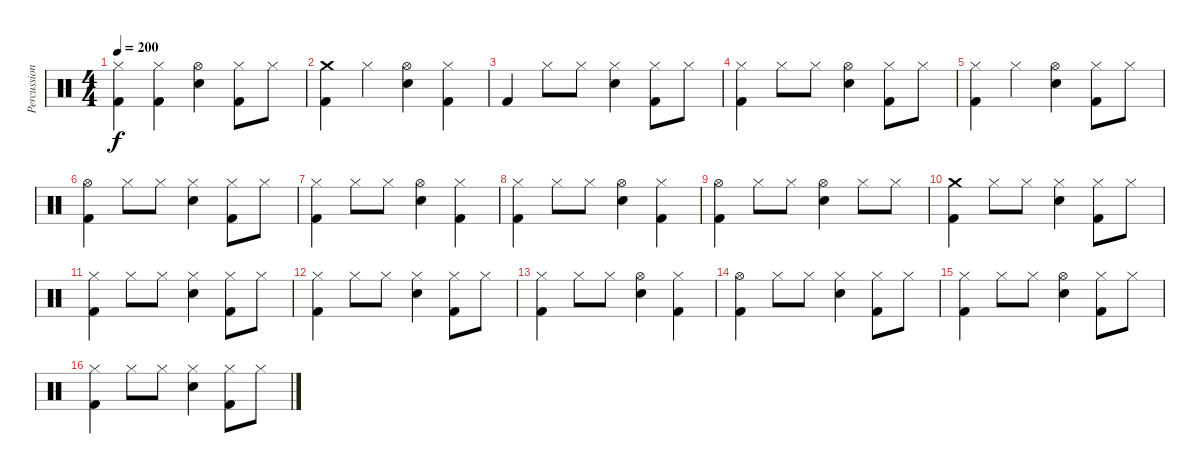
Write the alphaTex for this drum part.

\track ("Percussion" "Percussion") {instrument percussion}
\staff {score}
\articulation defaults
\ts (4 4)
\tempo 200
\clef neutral
\ks c
("Hi-Hat (closed)" "Kick (hit) 2").4{dy f} ("Hi-Hat (closed)" "Kick (hit) 2").4 ("Hi-Hat (open)" "Snare (hit) 2").4 ("Hi-Hat (closed)" "Kick (hit) 2").8 "Hi-Hat (closed)".8 |
("Crash medium (hit)" "Kick (hit) 2").4 "Hi-Hat (closed)".4 ("Hi-Hat (open)" "Snare (hit) 2").4 ("Hi-Hat (closed)" "Kick (hit) 2").4 |
"Kick (hit) 2".4 "Hi-Hat (closed)".8 "Hi-Hat (closed)".8 ("Hi-Hat (closed)" "Snare (hit) 2").4 ("Hi-Hat (closed)" "Kick (hit) 2").8 "Hi-Hat (closed)".8 |
("Hi-Hat (closed)" "Kick (hit) 2").4 "Hi-Hat (closed)".8 "Hi-Hat (closed)".8 ("Hi-Hat (open)" "Snare (hit) 2").4 ("Hi-Hat (closed)" "Kick (hit) 2").8 "Hi-Hat (closed)".8 |
("Hi-Hat (closed)" "Kick (hit) 2").4 "Hi-Hat (closed)".4 ("Hi-Hat (open)" "Snare (hit) 2").4 ("Hi-Hat (closed)" "Kick (hit) 2").8 "Hi-Hat (closed)".8 |
("Hi-Hat (open)" "Kick (hit) 2").4 "Hi-Hat (closed)".8 "Hi-Hat (closed)".8 ("Hi-Hat (closed)" "Snare (hit) 2").4 ("Hi-Hat (closed)" "Kick (hit) 2").8 "Hi-Hat (closed)".8 |
("Hi-Hat (closed)" "Kick (hit) 2").4 "Hi-Hat (closed)".8 "Hi-Hat (closed)".8 ("Hi-Hat (open)" "Snare (hit) 2").4 ("Hi-Hat (closed)" "Kick (hit) 2").4 |
("Hi-Hat (closed)" "Kick (hit) 2").4 "Hi-Hat (closed)".8 "Hi-Hat (closed)".8 ("Hi-Hat (open)" "Snare (hit) 2").4 ("Hi-Hat (closed)" "Kick (hit) 2").4 |
("Hi-Hat (open)" "Kick (hit) 2").4 "Hi-Hat (closed)".8 "Hi-Hat (closed)".8 ("Hi-Hat (open)" "Snare (hit) 2").4 "Hi-Hat (closed)".8 "Hi-Hat (closed)".8 |
("Crash medium (hit)" "Kick (hit) 2").4 "Hi-Hat (closed)".8 "Hi-Hat (closed)".8 ("Hi-Hat (closed)" "Snare (hit) 2").4 ("Hi-Hat (closed)" "Kick (hit) 2").8 "Hi-Hat (closed)".8 |
("Hi-Hat (closed)" "Kick (hit) 2").4 "Hi-Hat (closed)".8 "Hi-Hat (closed)".8 ("Hi-Hat (closed)" "Snare (hit) 2").4 ("Hi-Hat (closed)" "Kick (hit) 2").8 "Hi-Hat (closed)".8 |
("Hi-Hat (closed)" "Kick (hit) 2").4 "Hi-Hat (closed)".8 "Hi-Hat (closed)".8 ("Hi-Hat (closed)" "Snare (hit) 2").4 ("Hi-Hat (closed)" "Kick (hit) 2").8 "Hi-Hat (closed)".8 |
("Hi-Hat (closed)" "Kick (hit) 2").4 "Hi-Hat (closed)".8 "Hi-Hat (closed)".8 ("Hi-Hat (open)" "Snare (hit) 2").4 ("Hi-Hat (closed)" "Kick (hit) 2").4 |
("Hi-Hat (open)" "Kick (hit) 2").4 "Hi-Hat (closed)".8 "Hi-Hat (closed)".8 ("Hi-Hat (closed)" "Snare (hit) 2").4 ("Hi-Hat (closed)" "Kick (hit) 2").8 "Hi-Hat (closed)".8 |
("Hi-Hat (closed)" "Kick (hit) 2").4 "Hi-Hat (closed)".8 "Hi-Hat (closed)".8 ("Hi-Hat (open)" "Snare (hit) 2").4 ("Hi-Hat (closed)" "Kick (hit) 2").8 "Hi-Hat (closed)".8 |
("Hi-Hat (closed)" "Kick (hit) 2").4 "Hi-Hat (closed)".8 "Hi-Hat (closed)".8 ("Hi-Hat (closed)" "Snare (hit) 2").4 ("Hi-Hat (closed)" "Kick (hit) 2").8 "Hi-Hat (closed)".8
